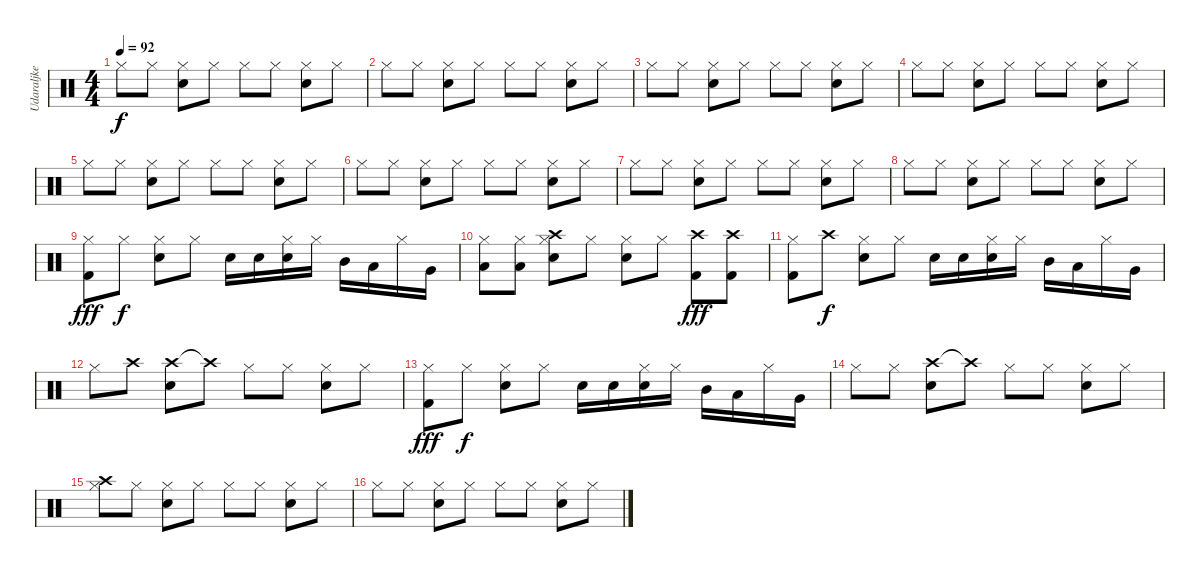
\track ("Udaraljke" "Udaraljke") {instrument percussion}
\staff {score}
\articulation defaults
\ts (4 4)
\tempo 92
\clef neutral
\ks c "Hi-Hat (closed)".8{dy f} "Hi-Hat (closed)".8
("Hi-Hat (closed)" "Electric Snare (hit)").8 "Hi-Hat (closed)".8 "Hi-Hat (closed)".8 "Hi-Hat (closed)".8 ("Hi-Hat (closed)" "Electric Snare (hit)").8 "Hi-Hat (closed)".8 |
"Hi-Hat (closed)".8 "Hi-Hat (closed)".8 ("Hi-Hat (closed)" "Electric Snare (hit)").8 "Hi-Hat (closed)".8 "Hi-Hat (closed)".8 "Hi-Hat (closed)".8 ("Hi-Hat (closed)" "Electric Snare (hit)").8 "Hi-Hat (closed)".8 |
"Hi-Hat (closed)".8 "Hi-Hat (closed)".8 ("Hi-Hat (closed)" "Electric Snare (hit)").8 "Hi-Hat (closed)".8 "Hi-Hat (closed)".8 "Hi-Hat (closed)".8 ("Hi-Hat (closed)" "Electric Snare (hit)").8 "Hi-Hat (closed)".8 |
"Hi-Hat (closed)".8 "Hi-Hat (closed)".8 ("Hi-Hat (closed)" "Electric Snare (hit)").8 "Hi-Hat (closed)".8 "Hi-Hat (closed)".8 "Hi-Hat (closed)".8 ("Hi-Hat (closed)" "Electric Snare (hit)").8 "Hi-Hat (closed)".8 |
"Hi-Hat (closed)".8 "Hi-Hat (closed)".8 ("Hi-Hat (closed)" "Electric Snare (hit)").8 "Hi-Hat (closed)".8 "Hi-Hat (closed)".8 "Hi-Hat (closed)".8 ("Hi-Hat (closed)" "Electric Snare (hit)").8 "Hi-Hat (closed)".8 |
"Hi-Hat (closed)".8 "Hi-Hat (closed)".8 ("Hi-Hat (closed)" "Electric Snare (hit)").8 "Hi-Hat (closed)".8 "Hi-Hat (closed)".8 "Hi-Hat (closed)".8 ("Hi-Hat (closed)" "Electric Snare (hit)").8 "Hi-Hat (closed)".8 |
"Hi-Hat (closed)".8 "Hi-Hat (closed)".8 ("Hi-Hat (closed)" "Electric Snare (hit)").8 "Hi-Hat (closed)".8 "Hi-Hat (closed)".8 "Hi-Hat (closed)".8 ("Hi-Hat (closed)" "Electric Snare (hit)").8 "Hi-Hat (closed)".8 |
"Hi-Hat (closed)".8 "Hi-Hat (closed)".8 ("Hi-Hat (closed)" "Electric Snare (hit)").8 "Hi-Hat (closed)".8 "Hi-Hat (closed)".8 "Hi-Hat (closed)".8 ("Hi-Hat (closed)" "Electric Snare (hit)").8 "Hi-Hat (closed)".8 |
("Hi-Hat (closed)" "Kick (hit) 2").8{dy fff} "Hi-Hat (closed)".8{dy f} ("Hi-Hat (closed)" "Electric Snare (hit)").8 "Hi-Hat (closed)".8 "Electric Snare (hit)".16 "Electric Snare (hit)".16 ("Hi-Hat (closed)" "Electric Snare (hit)").16 "Hi-Hat (closed)".16 "Mid Tom (hit)".16 "Low Floor Tom (hit)".16 "Hi-Hat (closed)".16 "Very Low Tom (hit)".16 |
("Hi-Hat (closed)" "Low Floor Tom (hit)").8 ("Hi-Hat (closed)" "Low Tom (hit)").8 ("Hi-Hat (closed)" "Electric Snare (hit)" "Crash high (hit)").8 "Hi-Hat (closed)".8 ("Hi-Hat (closed)" "Electric Snare (hit)").8 "Hi-Hat (closed)".8 ("Crash high (hit)" "Kick (hit) 2").8{dy fff} ("Crash high (hit)" "Kick (hit) 2").8 |
("Hi-Hat (closed)" "Kick (hit) 2").8 "Crash high (hit)".8{dy f} ("Hi-Hat (closed)" "Electric Snare (hit)").8 "Hi-Hat (closed)".8 "Electric Snare (hit)".16 "Electric Snare (hit)".16 ("Hi-Hat (closed)" "Electric Snare (hit)").16 "Hi-Hat (closed)".16 "Mid Tom (hit)".16 "Low Floor Tom (hit)".16 "Hi-Hat (closed)".16 "Very Low Tom (hit)".16 |
"Hi-Hat (closed)".8 "Crash high (hit)".8 ("Crash high (hit)" "Electric Snare (hit)").8 "Crash high (hit)"{t}.8 "Hi-Hat (closed)".8 "Hi-Hat (closed)".8 ("Hi-Hat (closed)" "Electric Snare (hit)").8 "Hi-Hat (closed)".8 |
("Hi-Hat (closed)" "Kick (hit) 2").8{dy fff} "Hi-Hat (closed)".8{dy f} ("Hi-Hat (closed)" "Electric Snare (hit)").8 "Hi-Hat (closed)".8 "Electric Snare (hit)".16 "Electric Snare (hit)".16 ("Hi-Hat (closed)" "Electric Snare (hit)").16 "Hi-Hat (closed)".16 "Mid Tom (hit)".16 "Low Floor Tom (hit)".16 "Hi-Hat (closed)".16 "Very Low Tom (hit)".16 |
"Hi-Hat (closed)".8 "Hi-Hat (closed)".8 ("Crash high (hit)" "Electric Snare (hit)").8 "Crash high (hit)"{t}.8 "Hi-Hat (closed)".8 "Hi-Hat (closed)".8 ("Hi-Hat (closed)" "Electric Snare (hit)").8 "Hi-Hat (closed)".8 |
("Hi-Hat (closed)" "Crash high (hit)").8 "Hi-Hat (closed)".8 ("Hi-Hat (closed)" "Electric Snare (hit)").8 "Hi-Hat (closed)".8 "Hi-Hat (closed)".8 "Hi-Hat (closed)".8 ("Hi-Hat (closed)" "Electric Snare (hit)").8 "Hi-Hat (closed)".8 |
"Hi-Hat (closed)".8 "Hi-Hat (closed)".8 ("Hi-Hat (closed)" "Electric Snare (hit)").8 "Hi-Hat (closed)".8 "Hi-Hat (closed)".8 "Hi-Hat (closed)".8 ("Hi-Hat (closed)" "Electric Snare (hit)").8 "Hi-Hat (closed)".8
